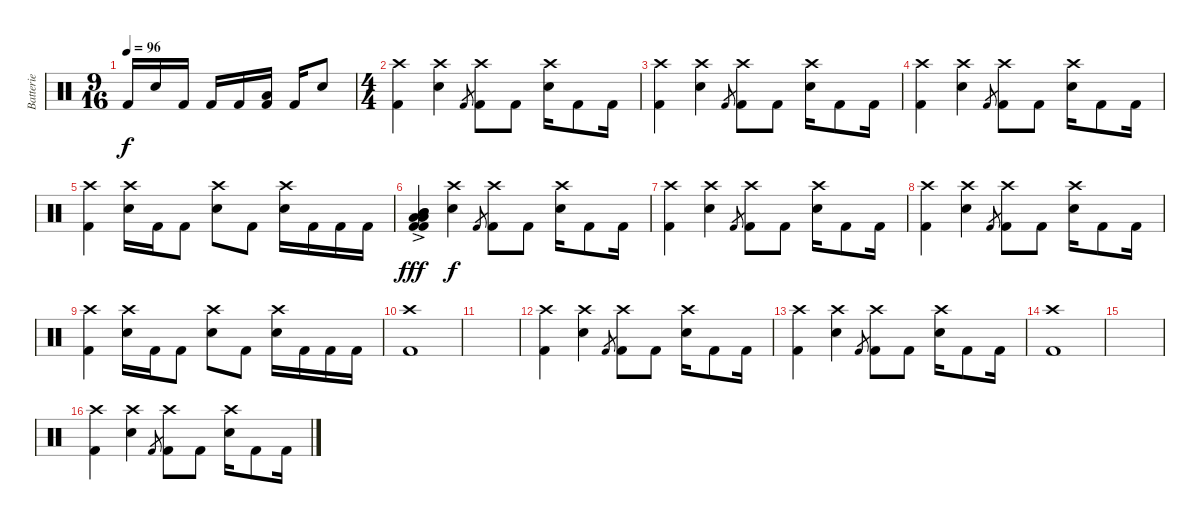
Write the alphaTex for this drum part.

\track ("Batterie" "Batterie") {instrument percussion}
\staff {score}
\articulation defaults
\ts (9 16)
\tempo 96
\clef neutral
\ks c "Kick (hit) 2".16{dy f} "Snare (hit) 2".16 "Kick (hit) 2".16 "Kick (hit) 2".16 "Kick (hit) 2".16
("Low Tom (hit)" "Kick (hit) 2").16 "Kick (hit) 2".16 "Snare (hit) 2".8 |
\ts (4 4)
("Crash high (hit)" "Kick (hit) 2").4 ("Crash high (hit)" "Snare (hit) 2").4 "Kick (hit) 2".8{gr} ("Crash high (hit)" "Kick (hit) 2").8 "Kick (hit) 2".8 ("Crash high (hit)" "Snare (hit) 2").16 "Kick (hit) 2".8 "Kick (hit) 2".16 |
("Crash high (hit)" "Kick (hit) 2").4 ("Crash high (hit)" "Snare (hit) 2").4 "Kick (hit) 2".8{gr} ("Crash high (hit)" "Kick (hit) 2").8 "Kick (hit) 2".8 ("Crash high (hit)" "Snare (hit) 2").16 "Kick (hit) 2".8 "Kick (hit) 2".16 |
("Crash high (hit)" "Kick (hit) 2").4 ("Crash high (hit)" "Snare (hit) 2").4 "Kick (hit) 2".8{gr} ("Crash high (hit)" "Kick (hit) 2").8 "Kick (hit) 2".8 ("Crash high (hit)" "Snare (hit) 2").16 "Kick (hit) 2".8 "Kick (hit) 2".16 |
("Crash high (hit)" "Kick (hit) 2").4 ("Crash high (hit)" "Snare (hit) 2").16 "Kick (hit) 2".16 "Kick (hit) 2".8 ("Crash high (hit)" "Snare (hit) 2").8 "Kick (hit) 2".8 ("Crash high (hit)" "Snare (hit) 2").16 "Kick (hit) 2".16 "Kick (hit) 2".16 "Kick (hit) 2".16 |
("Mid Tom (hit)" "Low Tom (hit)" "Kick (hit) 2" "Mid Tom (hit)"{ac} "Low Tom (hit)"{ac} "Kick (hit) 2").4{dy fff} ("Crash high (hit)" "Snare (hit) 2").4{dy f} "Kick (hit) 2".8{gr} ("Crash high (hit)" "Kick (hit) 2").8 "Kick (hit) 2".8 ("Crash high (hit)" "Snare (hit) 2").16 "Kick (hit) 2".8 "Kick (hit) 2".16 |
("Crash high (hit)" "Kick (hit) 2").4 ("Crash high (hit)" "Snare (hit) 2").4 "Kick (hit) 2".8{gr} ("Crash high (hit)" "Kick (hit) 2").8 "Kick (hit) 2".8 ("Crash high (hit)" "Snare (hit) 2").16 "Kick (hit) 2".8 "Kick (hit) 2".16 |
("Crash high (hit)" "Kick (hit) 2").4 ("Crash high (hit)" "Snare (hit) 2").4 "Kick (hit) 2".8{gr} ("Crash high (hit)" "Kick (hit) 2").8 "Kick (hit) 2".8 ("Crash high (hit)" "Snare (hit) 2").16 "Kick (hit) 2".8 "Kick (hit) 2".16 |
("Crash high (hit)" "Kick (hit) 2").4 ("Crash high (hit)" "Snare (hit) 2").16 "Kick (hit) 2".16 "Kick (hit) 2".8 ("Crash high (hit)" "Snare (hit) 2").8 "Kick (hit) 2".8 ("Crash high (hit)" "Snare (hit) 2").16 "Kick (hit) 2".16 "Kick (hit) 2".16 "Kick (hit) 2".16 |
("Crash high (hit)" "Kick (hit) 2").1 |
|
("Crash high (hit)" "Kick (hit) 2").4 ("Crash high (hit)" "Snare (hit) 2").4 "Kick (hit) 2".8{gr} ("Crash high (hit)" "Kick (hit) 2").8 "Kick (hit) 2".8 ("Crash high (hit)" "Snare (hit) 2").16 "Kick (hit) 2".8 "Kick (hit) 2".16 |
("Crash high (hit)" "Kick (hit) 2").4 ("Crash high (hit)" "Snare (hit) 2").4 "Kick (hit) 2".8{gr} ("Crash high (hit)" "Kick (hit) 2").8 "Kick (hit) 2".8 ("Crash high (hit)" "Snare (hit) 2").16 "Kick (hit) 2".8 "Kick (hit) 2".16 |
("Crash high (hit)" "Kick (hit) 2").1 |
|
("Crash high (hit)" "Kick (hit) 2").4 ("Crash high (hit)" "Snare (hit) 2").4 "Kick (hit) 2".8{gr} ("Crash high (hit)" "Kick (hit) 2").8 "Kick (hit) 2".8 ("Crash high (hit)" "Snare (hit) 2").16 "Kick (hit) 2".8 "Kick (hit) 2".16
